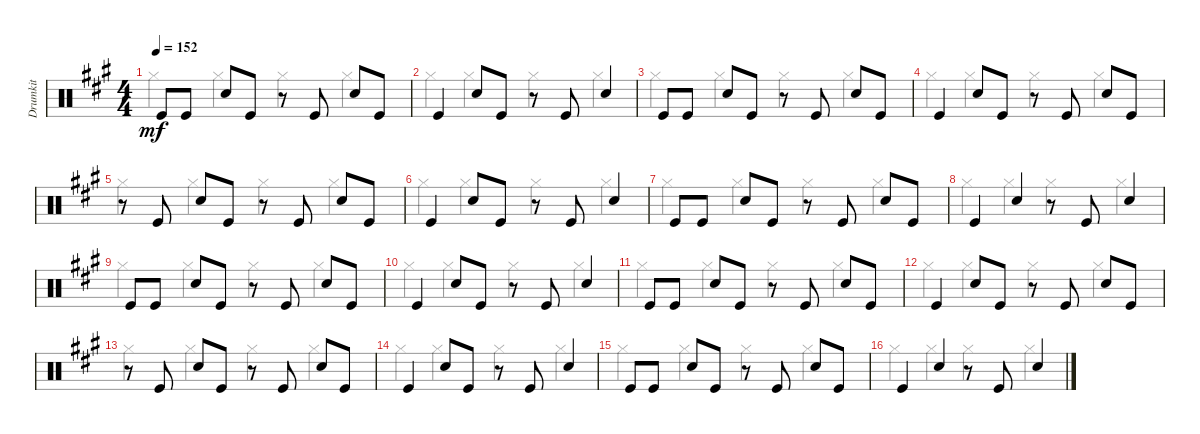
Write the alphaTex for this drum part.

\track ("Drumkit" "Drumkit") {instrument percussion}
\staff {score}
\articulation defaults
\voice
\ts (4 4)
\tempo 152
\clef neutral
\ks a "Kick (hit)".8{dy mf} "Kick (hit)".8 "Snare (hit) 2".8 "Kick (hit)".8
r.8 "Kick (hit)".8 "Snare (hit) 2".8 "Kick (hit)".8 |
"Kick (hit)".4 "Snare (hit) 2".8 "Kick (hit)".8 r.8 "Kick (hit)".8 "Snare (hit) 2".4 |
"Kick (hit)".8 "Kick (hit)".8 "Snare (hit) 2".8 "Kick (hit)".8 r.8 "Kick (hit)".8 "Snare (hit) 2".8 "Kick (hit)".8 |
"Kick (hit)".4 "Snare (hit) 2".8 "Kick (hit)".8 r.8 "Kick (hit)".8 "Snare (hit) 2".8 "Kick (hit)".8 |
r.8 "Kick (hit)".8 "Snare (hit) 2".8 "Kick (hit)".8 r.8 "Kick (hit)".8 "Snare (hit) 2".8 "Kick (hit)".8 |
"Kick (hit)".4 "Snare (hit) 2".8 "Kick (hit)".8 r.8 "Kick (hit)".8 "Snare (hit) 2".4 |
"Kick (hit)".8 "Kick (hit)".8 "Snare (hit) 2".8 "Kick (hit)".8 r.8 "Kick (hit)".8 "Snare (hit) 2".8 "Kick (hit)".8 |
"Kick (hit)".4 "Snare (hit) 2".4 r.8 "Kick (hit)".8 "Snare (hit) 2".4 |
"Kick (hit)".8 "Kick (hit)".8 "Snare (hit) 2".8 "Kick (hit)".8 r.8 "Kick (hit)".8 "Snare (hit) 2".8 "Kick (hit)".8 |
"Kick (hit)".4 "Snare (hit) 2".8 "Kick (hit)".8 r.8 "Kick (hit)".8 "Snare (hit) 2".4 |
"Kick (hit)".8 "Kick (hit)".8 "Snare (hit) 2".8 "Kick (hit)".8 r.8 "Kick (hit)".8 "Snare (hit) 2".8 "Kick (hit)".8 |
"Kick (hit)".4 "Snare (hit) 2".8 "Kick (hit)".8 r.8 "Kick (hit)".8 "Snare (hit) 2".8 "Kick (hit)".8 |
r.8 "Kick (hit)".8 "Snare (hit) 2".8 "Kick (hit)".8 r.8 "Kick (hit)".8 "Snare (hit) 2".8 "Kick (hit)".8 |
"Kick (hit)".4 "Snare (hit) 2".8 "Kick (hit)".8 r.8 "Kick (hit)".8 "Snare (hit) 2".4 |
"Kick (hit)".8 "Kick (hit)".8 "Snare (hit) 2".8 "Kick (hit)".8 r.8 "Kick (hit)".8 "Snare (hit) 2".8 "Kick (hit)".8 |
"Kick (hit)".4 "Snare (hit) 2".4 r.8 "Kick (hit)".8 "Snare (hit) 2".4
\voice
\clef neutral
\ottava regular
\simile none
\ks a "Hi-Hat (closed)".4{dy mf} "Hi-Hat (closed)".4 "Hi-Hat (closed)".4 "Hi-Hat (closed)".4
|
"Hi-Hat (closed)".4 "Hi-Hat (closed)".4 "Hi-Hat (closed)".4 "Hi-Hat (closed)".4 |
"Hi-Hat (closed)".4 "Hi-Hat (closed)".4 "Hi-Hat (closed)".4 "Hi-Hat (closed)".4 |
"Hi-Hat (closed)".4 "Hi-Hat (closed)".4 "Hi-Hat (closed)".4 "Hi-Hat (closed)".4 |
"Hi-Hat (closed)".4 "Hi-Hat (closed)".4 "Hi-Hat (closed)".4 "Hi-Hat (closed)".4 |
"Hi-Hat (closed)".4 "Hi-Hat (closed)".4 "Hi-Hat (closed)".4 "Hi-Hat (closed)".4 |
"Hi-Hat (closed)".4 "Hi-Hat (closed)".4 "Hi-Hat (closed)".4 "Hi-Hat (closed)".4 |
"Hi-Hat (closed)".4 "Hi-Hat (closed)".4 "Hi-Hat (closed)".4 "Hi-Hat (closed)".4 |
"Hi-Hat (closed)".4 "Hi-Hat (closed)".4 "Hi-Hat (closed)".4 "Hi-Hat (closed)".4 |
"Hi-Hat (closed)".4 "Hi-Hat (closed)".4 "Hi-Hat (closed)".4 "Hi-Hat (closed)".4 |
"Hi-Hat (closed)".4 "Hi-Hat (closed)".4 "Hi-Hat (closed)".4 "Hi-Hat (closed)".4 |
"Hi-Hat (closed)".4 "Hi-Hat (closed)".4 "Hi-Hat (closed)".4 "Hi-Hat (closed)".4 |
"Hi-Hat (closed)".4 "Hi-Hat (closed)".4 "Hi-Hat (closed)".4 "Hi-Hat (closed)".4 |
"Hi-Hat (closed)".4 "Hi-Hat (closed)".4 "Hi-Hat (closed)".4 "Hi-Hat (closed)".4 |
"Hi-Hat (closed)".4 "Hi-Hat (closed)".4 "Hi-Hat (closed)".4 "Hi-Hat (closed)".4 |
"Hi-Hat (closed)".4 "Hi-Hat (closed)".4 "Hi-Hat (closed)".4 "Hi-Hat (closed)".4
